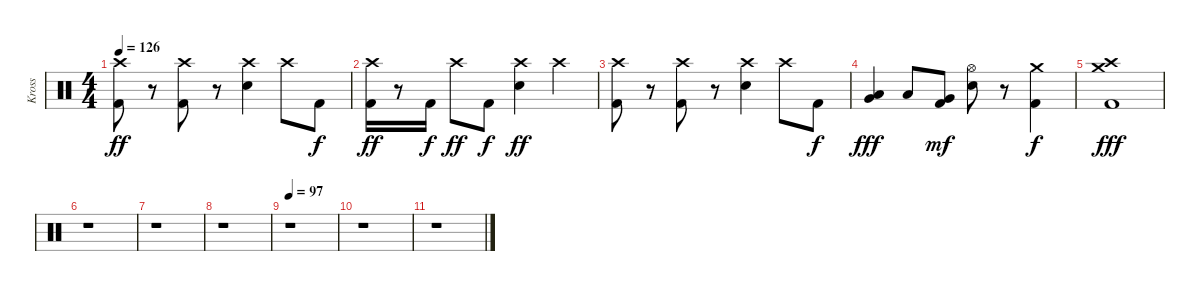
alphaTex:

\track ("Kross" "Kross") {instrument percussion}
\staff {score}
\articulation defaults
\ts (4 4)
\tempo 126
\clef neutral
\ks c
("Crash high (hit)" "Kick (hit) 2").8{dy ff} r.8 ("Crash high (hit)" "Kick (hit) 2").8 r.8 ("Crash high (hit)" "Electric Snare (hit)").4 "Crash high (hit)".8 "Kick (hit) 2".8{dy f} |
("Crash high (hit)" "Kick (hit) 2").16{dy ff} r.8 "Kick (hit) 2".16{dy f} "Crash high (hit)".8{dy ff} "Kick (hit) 2".8{dy f} ("Crash high (hit)" "Electric Snare (hit)").4{dy ff} "Crash high (hit)".4 |
("Crash high (hit)" "Kick (hit) 2").8 r.8 ("Crash high (hit)" "Kick (hit) 2").8 r.8 ("Crash high (hit)" "Electric Snare (hit)").4 "Crash high (hit)".8 "Kick (hit) 2".8{dy f} |
("Low Tom (hit)" "Very Low Tom (hit)").4{dy fff} "Low Tom (hit)".8 ("Very Low Tom (hit)" "Kick (hit) 2").8{dy mf} ("Hi-Hat (open)" "Electric Snare (hit)").8 r.8 ("Crash medium (hit)" "Kick (hit) 2").4{dy f} |
("Crash high (hit)" "Crash medium (hit)" "Kick (hit) 2").1{dy fff} |
r.1 |
r.1 |
r.1 |
\tempo 97
r.1 |
r.1 |
r.1
